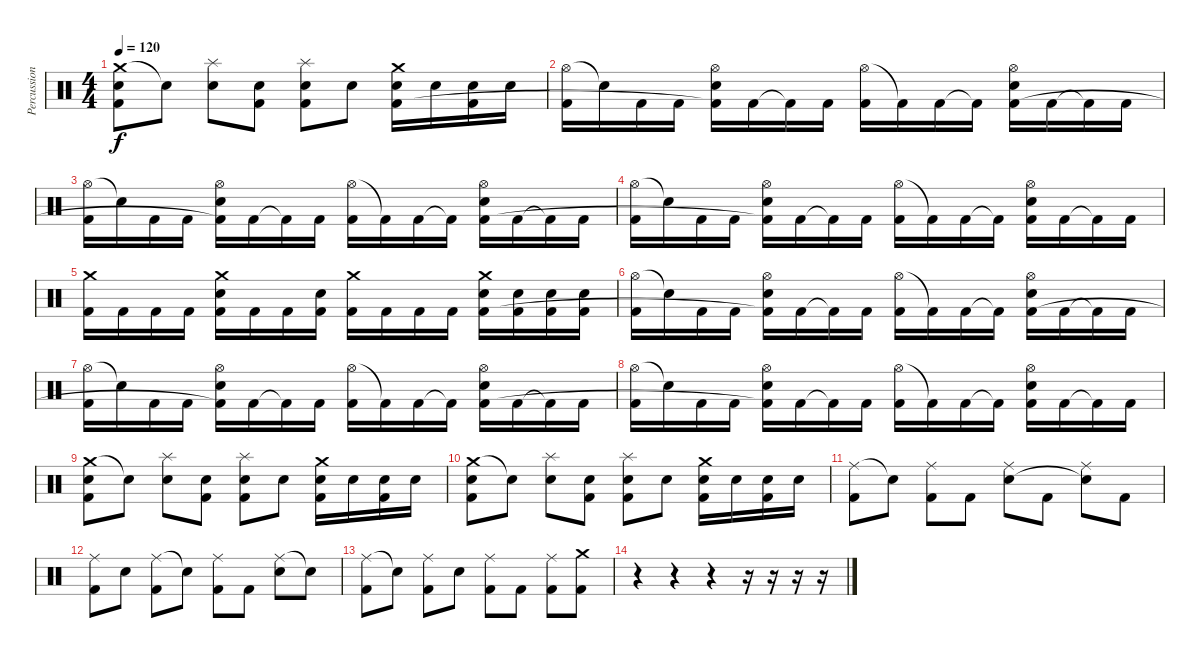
\track ("Percussion" "Percussion") {instrument percussion}
\staff {score}
\articulation defaults
\ts (4 4)
\tempo 120
\clef neutral
\ks c
("Crash medium (hit)" "Electric Snare (hit)" "Kick (hit) 2").8{dy f} "Snare (hit)"{t}.8 ("Splash (hit)" "Electric Snare (hit)").8 ("Electric Snare (hit)" "Kick (hit) 2").8 ("Splash (hit)" "Electric Snare (hit)" "Kick (hit) 2").8 "Electric Snare (hit)".8 ("Crash medium (hit)" "Electric Snare (hit)" "Kick (hit) 2").16 "Electric Snare (hit)".16 ("Electric Snare (hit)" "Kick (hit) 2").16 "Electric Snare (hit)".16 |
("Hi-Hat (open)" "Kick (hit) 2").16 "Snare (hit)"{t}.16 "Kick (hit) 2".16 "Kick (hit) 2".16 ("Hi-Hat (open)" "Electric Snare (hit)" "Kick (hit) 2"{t}).16 "Kick (hit) 2".16 "Kick (hit) 2"{t}.16 "Kick (hit) 2".16 ("Hi-Hat (open)" "Kick (hit) 2").16 "Kick (hit) 2"{t}.16 "Kick (hit) 2".16 "Kick (hit) 2"{t}.16 ("Hi-Hat (open)" "Electric Snare (hit)" "Kick (hit) 2").16 "Kick (hit) 2".16 "Kick (hit) 2"{t}.16 "Kick (hit) 2".16 |
("Hi-Hat (open)" "Kick (hit) 2").16 "Snare (hit)"{t}.16 "Kick (hit) 2".16 "Kick (hit) 2".16 ("Hi-Hat (open)" "Electric Snare (hit)" "Kick (hit) 2"{t}).16 "Kick (hit) 2".16 "Kick (hit) 2"{t}.16 "Kick (hit) 2".16 ("Hi-Hat (open)" "Kick (hit) 2").16 "Kick (hit) 2"{t}.16 "Kick (hit) 2".16 "Kick (hit) 2"{t}.16 ("Hi-Hat (open)" "Electric Snare (hit)" "Kick (hit) 2").16 "Kick (hit) 2".16 "Kick (hit) 2"{t}.16 "Kick (hit) 2".16 |
("Hi-Hat (open)" "Kick (hit) 2").16 "Snare (hit)"{t}.16 "Kick (hit) 2".16 "Kick (hit) 2".16 ("Hi-Hat (open)" "Electric Snare (hit)" "Kick (hit) 2"{t}).16 "Kick (hit) 2".16 "Kick (hit) 2"{t}.16 "Kick (hit) 2".16 ("Hi-Hat (open)" "Kick (hit) 2").16 "Kick (hit) 2"{t}.16 "Kick (hit) 2".16 "Kick (hit) 2"{t}.16 ("Hi-Hat (open)" "Electric Snare (hit)" "Kick (hit) 2").16 "Kick (hit) 2".16 "Kick (hit) 2"{t}.16 "Kick (hit) 2".16 |
("Crash medium (hit)" "Kick (hit) 2").16 "Kick (hit) 2".16 "Kick (hit) 2".16 "Kick (hit) 2".16 ("Crash medium (hit)" "Electric Snare (hit)" "Kick (hit) 2").16 "Kick (hit) 2".16 "Kick (hit) 2".16 ("Electric Snare (hit)" "Kick (hit) 2").16 ("Crash medium (hit)" "Kick (hit) 2").16 "Kick (hit) 2".16 "Kick (hit) 2".16 "Kick (hit) 2".16 ("Crash medium (hit)" "Electric Snare (hit)" "Kick (hit) 2").16 ("Electric Snare (hit)" "Kick (hit) 2").16 ("Electric Snare (hit)" "Kick (hit) 2").16 ("Electric Snare (hit)" "Kick (hit) 2").16 |
("Hi-Hat (open)" "Kick (hit) 2").16 "Snare (hit)"{t}.16 "Kick (hit) 2".16 "Kick (hit) 2".16 ("Hi-Hat (open)" "Electric Snare (hit)" "Kick (hit) 2"{t}).16 "Kick (hit) 2".16 "Kick (hit) 2"{t}.16 "Kick (hit) 2".16 ("Hi-Hat (open)" "Kick (hit) 2").16 "Kick (hit) 2"{t}.16 "Kick (hit) 2".16 "Kick (hit) 2"{t}.16 ("Hi-Hat (open)" "Electric Snare (hit)" "Kick (hit) 2").16 "Kick (hit) 2".16 "Kick (hit) 2"{t}.16 "Kick (hit) 2".16 |
("Hi-Hat (open)" "Kick (hit) 2").16 "Snare (hit)"{t}.16 "Kick (hit) 2".16 "Kick (hit) 2".16 ("Hi-Hat (open)" "Electric Snare (hit)" "Kick (hit) 2"{t}).16 "Kick (hit) 2".16 "Kick (hit) 2"{t}.16 "Kick (hit) 2".16 ("Hi-Hat (open)" "Kick (hit) 2").16 "Kick (hit) 2"{t}.16 "Kick (hit) 2".16 "Kick (hit) 2"{t}.16 ("Hi-Hat (open)" "Electric Snare (hit)" "Kick (hit) 2").16 "Kick (hit) 2".16 "Kick (hit) 2"{t}.16 "Kick (hit) 2".16 |
("Hi-Hat (open)" "Kick (hit) 2").16 "Snare (hit)"{t}.16 "Kick (hit) 2".16 "Kick (hit) 2".16 ("Hi-Hat (open)" "Electric Snare (hit)" "Kick (hit) 2"{t}).16 "Kick (hit) 2".16 "Kick (hit) 2"{t}.16 "Kick (hit) 2".16 ("Hi-Hat (open)" "Kick (hit) 2").16 "Kick (hit) 2"{t}.16 "Kick (hit) 2".16 "Kick (hit) 2"{t}.16 ("Hi-Hat (open)" "Electric Snare (hit)" "Kick (hit) 2").16 "Kick (hit) 2".16 "Kick (hit) 2"{t}.16 "Kick (hit) 2".16 |
("Crash medium (hit)" "Electric Snare (hit)" "Kick (hit) 2").8 "Snare (hit)"{t}.8 ("Splash (hit)" "Electric Snare (hit)").8 ("Electric Snare (hit)" "Kick (hit) 2").8 ("Splash (hit)" "Electric Snare (hit)" "Kick (hit) 2").8 "Electric Snare (hit)".8 ("Crash medium (hit)" "Electric Snare (hit)" "Kick (hit) 2").16 "Electric Snare (hit)".16 ("Electric Snare (hit)" "Kick (hit) 2").16 "Electric Snare (hit)".16 |
("Crash medium (hit)" "Electric Snare (hit)" "Kick (hit) 2").8 "Snare (hit)"{t}.8 ("Splash (hit)" "Electric Snare (hit)").8 ("Electric Snare (hit)" "Kick (hit) 2").8 ("Splash (hit)" "Electric Snare (hit)" "Kick (hit) 2").8 "Electric Snare (hit)".8 ("Crash medium (hit)" "Electric Snare (hit)" "Kick (hit) 2").16 "Electric Snare (hit)".16 ("Electric Snare (hit)" "Kick (hit) 2").16 "Electric Snare (hit)".16 |
("Ride (middle)" "Kick (hit) 2").8 "Snare (hit)"{t}.8 ("Ride (middle)" "Kick (hit) 2").8 "Kick (hit) 2".8 ("Ride (middle)" "Electric Snare (hit)").8 "Kick (hit) 2".8 ("Ride (middle)" "Snare (hit)"{t}).8 "Kick (hit) 2".8 |
("Ride (middle)" "Kick (hit) 2").8 "Electric Snare (hit)".8 ("Ride (middle)" "Kick (hit) 2").8 "Snare (hit)"{t}.8 ("Ride (middle)" "Kick (hit) 2").8 "Kick (hit) 2".8 ("Ride (middle)" "Electric Snare (hit)").8 "Snare (hit)"{t}.8 |
("Ride (middle)" "Kick (hit) 2").8 "Snare (hit)"{t}.8 ("Ride (middle)" "Kick (hit) 2").8 "Electric Snare (hit)".8 ("Ride (middle)" "Kick (hit) 2").8 "Kick (hit) 2".8 ("Ride (middle)" "Kick (hit) 2").8 ("Crash medium (hit)" "Kick (hit) 2").8 |
r.4 r.4 r.4 r.16 r.16 r.16 r.16
